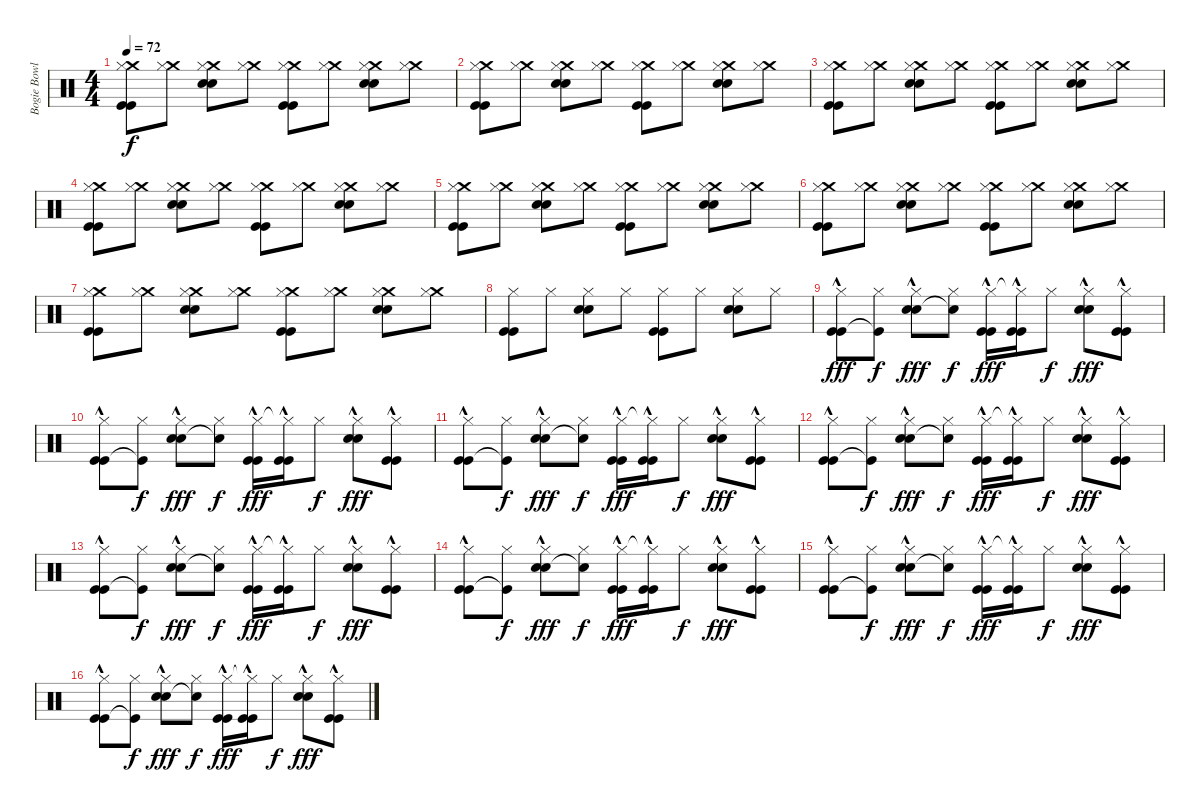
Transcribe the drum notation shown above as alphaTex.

\track ("Bogie Bowles" "Bogie Bowl") {instrument percussion}
\staff {score}
\articulation defaults
\ts (4 4)
\tempo 72
\clef neutral
\ks c
("Crash medium (hit)" "Hi-Hat (closed)" "Kick (hit)" "Kick (hit)").8{dy f} ("Crash medium (hit)" "Hi-Hat (closed)").8 ("Crash medium (hit)" "Hi-Hat (closed)" "Snare (hit) 2" "Snare (hit) 2").8 ("Crash medium (hit)" "Hi-Hat (closed)").8 ("Crash medium (hit)" "Hi-Hat (closed)" "Kick (hit)" "Kick (hit)").8 ("Crash medium (hit)" "Hi-Hat (closed)").8 ("Crash medium (hit)" "Hi-Hat (closed)" "Snare (hit) 2" "Snare (hit) 2").8 ("Crash medium (hit)" "Hi-Hat (closed)").8 |
("Crash medium (hit)" "Hi-Hat (closed)" "Kick (hit)" "Kick (hit)").8 ("Crash medium (hit)" "Hi-Hat (closed)").8 ("Crash medium (hit)" "Hi-Hat (closed)" "Snare (hit) 2" "Snare (hit) 2").8 ("Crash medium (hit)" "Hi-Hat (closed)").8 ("Crash medium (hit)" "Hi-Hat (closed)" "Kick (hit)" "Kick (hit)").8 ("Crash medium (hit)" "Hi-Hat (closed)").8 ("Crash medium (hit)" "Hi-Hat (closed)" "Snare (hit) 2" "Snare (hit) 2").8 ("Crash medium (hit)" "Hi-Hat (closed)").8 |
("Crash medium (hit)" "Hi-Hat (closed)" "Kick (hit)" "Kick (hit)").8 ("Crash medium (hit)" "Hi-Hat (closed)").8 ("Crash medium (hit)" "Hi-Hat (closed)" "Snare (hit) 2" "Snare (hit) 2").8 ("Crash medium (hit)" "Hi-Hat (closed)").8 ("Crash medium (hit)" "Hi-Hat (closed)" "Kick (hit)" "Kick (hit)").8 ("Crash medium (hit)" "Hi-Hat (closed)").8 ("Crash medium (hit)" "Hi-Hat (closed)" "Snare (hit) 2" "Snare (hit) 2").8 ("Crash medium (hit)" "Hi-Hat (closed)").8 |
("Crash medium (hit)" "Hi-Hat (closed)" "Kick (hit)" "Kick (hit)").8 ("Crash medium (hit)" "Hi-Hat (closed)").8 ("Crash medium (hit)" "Hi-Hat (closed)" "Snare (hit) 2" "Snare (hit) 2").8 ("Crash medium (hit)" "Hi-Hat (closed)").8 ("Crash medium (hit)" "Hi-Hat (closed)" "Kick (hit)" "Kick (hit)").8 ("Crash medium (hit)" "Hi-Hat (closed)").8 ("Crash medium (hit)" "Hi-Hat (closed)" "Snare (hit) 2" "Snare (hit) 2").8 ("Crash medium (hit)" "Hi-Hat (closed)").8 |
("Crash medium (hit)" "Hi-Hat (closed)" "Kick (hit)" "Kick (hit)").8 ("Crash medium (hit)" "Hi-Hat (closed)").8 ("Crash medium (hit)" "Hi-Hat (closed)" "Snare (hit) 2" "Snare (hit) 2").8 ("Crash medium (hit)" "Hi-Hat (closed)").8 ("Crash medium (hit)" "Hi-Hat (closed)" "Kick (hit)" "Kick (hit)").8 ("Crash medium (hit)" "Hi-Hat (closed)").8 ("Crash medium (hit)" "Hi-Hat (closed)" "Snare (hit) 2" "Snare (hit) 2").8 ("Crash medium (hit)" "Hi-Hat (closed)").8 |
("Crash medium (hit)" "Hi-Hat (closed)" "Kick (hit)" "Kick (hit)").8 ("Crash medium (hit)" "Hi-Hat (closed)").8 ("Crash medium (hit)" "Hi-Hat (closed)" "Snare (hit) 2" "Snare (hit) 2").8 ("Crash medium (hit)" "Hi-Hat (closed)").8 ("Crash medium (hit)" "Hi-Hat (closed)" "Kick (hit)" "Kick (hit)").8 ("Crash medium (hit)" "Hi-Hat (closed)").8 ("Crash medium (hit)" "Hi-Hat (closed)" "Snare (hit) 2" "Snare (hit) 2").8 ("Crash medium (hit)" "Hi-Hat (closed)").8 |
("Crash medium (hit)" "Hi-Hat (closed)" "Kick (hit)" "Kick (hit)").8 ("Crash medium (hit)" "Hi-Hat (closed)").8 ("Crash medium (hit)" "Hi-Hat (closed)" "Snare (hit) 2" "Snare (hit) 2").8 ("Crash medium (hit)" "Hi-Hat (closed)").8 ("Crash medium (hit)" "Hi-Hat (closed)" "Kick (hit)" "Kick (hit)").8 ("Crash medium (hit)" "Hi-Hat (closed)").8 ("Crash medium (hit)" "Hi-Hat (closed)" "Snare (hit) 2" "Snare (hit) 2").8 ("Crash medium (hit)" "Hi-Hat (closed)").8 |
("Hi-Hat (closed)" "Kick (hit)" "Kick (hit)").8 "Hi-Hat (closed)".8 ("Hi-Hat (closed)" "Snare (hit) 2" "Snare (hit) 2").8 "Hi-Hat (closed)".8 ("Hi-Hat (closed)" "Kick (hit)" "Kick (hit)").8 "Hi-Hat (closed)".8 ("Hi-Hat (closed)" "Snare (hit) 2" "Snare (hit) 2").8 "Hi-Hat (closed)".8 |
("Hi-Hat (closed)" "Kick (hit)"{hac} "Kick (hit)"{hac}).8{dy fff} ("Hi-Hat (closed)" "Kick (hit)"{t}).8{dy f} ("Hi-Hat (closed)" "Snare (hit) 2"{hac} "Snare (hit) 2"{hac}).8{dy fff} ("Hi-Hat (closed)" "Snare (hit) 2"{t}).8{dy f} ("Hi-Hat (closed)" "Kick (hit)"{hac} "Kick (hit)"{hac}).16{dy fff} ("Hi-Hat (closed)"{t} "Kick (hit)"{hac} "Kick (hit)"{hac}).16 "Hi-Hat (closed)".8{dy f} ("Hi-Hat (closed)" "Snare (hit) 2"{hac} "Snare (hit) 2"{hac}).8{dy fff} ("Hi-Hat (closed)" "Kick (hit)"{hac} "Kick (hit)"{hac}).8 |
("Hi-Hat (closed)" "Kick (hit)"{hac} "Kick (hit)"{hac}).8 ("Hi-Hat (closed)" "Kick (hit)"{t}).8{dy f} ("Hi-Hat (closed)" "Snare (hit) 2"{hac} "Snare (hit) 2"{hac}).8{dy fff} ("Hi-Hat (closed)" "Snare (hit) 2"{t}).8{dy f} ("Hi-Hat (closed)" "Kick (hit)"{hac} "Kick (hit)"{hac}).16{dy fff} ("Hi-Hat (closed)"{t} "Kick (hit)"{hac} "Kick (hit)"{hac}).16 "Hi-Hat (closed)".8{dy f} ("Hi-Hat (closed)" "Snare (hit) 2"{hac} "Snare (hit) 2"{hac}).8{dy fff} ("Hi-Hat (closed)" "Kick (hit)"{hac} "Kick (hit)"{hac}).8 |
("Hi-Hat (closed)" "Kick (hit)"{hac} "Kick (hit)"{hac}).8 ("Hi-Hat (closed)" "Kick (hit)"{t}).8{dy f} ("Hi-Hat (closed)" "Snare (hit) 2"{hac} "Snare (hit) 2"{hac}).8{dy fff} ("Hi-Hat (closed)" "Snare (hit) 2"{t}).8{dy f} ("Hi-Hat (closed)" "Kick (hit)"{hac} "Kick (hit)"{hac}).16{dy fff} ("Hi-Hat (closed)"{t} "Kick (hit)"{hac} "Kick (hit)"{hac}).16 "Hi-Hat (closed)".8{dy f} ("Hi-Hat (closed)" "Snare (hit) 2"{hac} "Snare (hit) 2"{hac}).8{dy fff} ("Hi-Hat (closed)" "Kick (hit)"{hac} "Kick (hit)"{hac}).8 |
("Hi-Hat (closed)" "Kick (hit)"{hac} "Kick (hit)"{hac}).8 ("Hi-Hat (closed)" "Kick (hit)"{t}).8{dy f} ("Hi-Hat (closed)" "Snare (hit) 2"{hac} "Snare (hit) 2"{hac}).8{dy fff} ("Hi-Hat (closed)" "Snare (hit) 2"{t}).8{dy f} ("Hi-Hat (closed)" "Kick (hit)"{hac} "Kick (hit)"{hac}).16{dy fff} ("Hi-Hat (closed)"{t} "Kick (hit)"{hac} "Kick (hit)"{hac}).16 "Hi-Hat (closed)".8{dy f} ("Hi-Hat (closed)" "Snare (hit) 2"{hac} "Snare (hit) 2"{hac}).8{dy fff} ("Hi-Hat (closed)" "Kick (hit)"{hac} "Kick (hit)"{hac}).8 |
("Hi-Hat (closed)" "Kick (hit)"{hac} "Kick (hit)"{hac}).8 ("Hi-Hat (closed)" "Kick (hit)"{t}).8{dy f} ("Hi-Hat (closed)" "Snare (hit) 2"{hac} "Snare (hit) 2"{hac}).8{dy fff} ("Hi-Hat (closed)" "Snare (hit) 2"{t}).8{dy f} ("Hi-Hat (closed)" "Kick (hit)"{hac} "Kick (hit)"{hac}).16{dy fff} ("Hi-Hat (closed)"{t} "Kick (hit)"{hac} "Kick (hit)"{hac}).16 "Hi-Hat (closed)".8{dy f} ("Hi-Hat (closed)" "Snare (hit) 2"{hac} "Snare (hit) 2"{hac}).8{dy fff} ("Hi-Hat (closed)" "Kick (hit)"{hac} "Kick (hit)"{hac}).8 |
("Hi-Hat (closed)" "Kick (hit)"{hac} "Kick (hit)"{hac}).8 ("Hi-Hat (closed)" "Kick (hit)"{t}).8{dy f} ("Hi-Hat (closed)" "Snare (hit) 2"{hac} "Snare (hit) 2"{hac}).8{dy fff} ("Hi-Hat (closed)" "Snare (hit) 2"{t}).8{dy f} ("Hi-Hat (closed)" "Kick (hit)"{hac} "Kick (hit)"{hac}).16{dy fff} ("Hi-Hat (closed)"{t} "Kick (hit)"{hac} "Kick (hit)"{hac}).16 "Hi-Hat (closed)".8{dy f} ("Hi-Hat (closed)" "Snare (hit) 2"{hac} "Snare (hit) 2"{hac}).8{dy fff} ("Hi-Hat (closed)" "Kick (hit)"{hac} "Kick (hit)"{hac}).8 |
("Hi-Hat (closed)" "Kick (hit)"{hac} "Kick (hit)"{hac}).8 ("Hi-Hat (closed)" "Kick (hit)"{t}).8{dy f} ("Hi-Hat (closed)" "Snare (hit) 2"{hac} "Snare (hit) 2"{hac}).8{dy fff} ("Hi-Hat (closed)" "Snare (hit) 2"{t}).8{dy f} ("Hi-Hat (closed)" "Kick (hit)"{hac} "Kick (hit)"{hac}).16{dy fff} ("Hi-Hat (closed)"{t} "Kick (hit)"{hac} "Kick (hit)"{hac}).16 "Hi-Hat (closed)".8{dy f} ("Hi-Hat (closed)" "Snare (hit) 2"{hac} "Snare (hit) 2"{hac}).8{dy fff} ("Hi-Hat (closed)" "Kick (hit)"{hac} "Kick (hit)"{hac}).8 |
("Hi-Hat (closed)" "Kick (hit)"{hac} "Kick (hit)"{hac}).8 ("Hi-Hat (closed)" "Kick (hit)"{t}).8{dy f} ("Hi-Hat (closed)" "Snare (hit) 2"{hac} "Snare (hit) 2"{hac}).8{dy fff} ("Hi-Hat (closed)" "Snare (hit) 2"{t}).8{dy f} ("Hi-Hat (closed)" "Kick (hit)"{hac} "Kick (hit)"{hac}).16{dy fff} ("Hi-Hat (closed)"{t} "Kick (hit)"{hac} "Kick (hit)"{hac}).16 "Hi-Hat (closed)".8{dy f} ("Hi-Hat (closed)" "Snare (hit) 2"{hac} "Snare (hit) 2"{hac}).8{dy fff} ("Hi-Hat (closed)" "Kick (hit)"{hac} "Kick (hit)"{hac}).8
